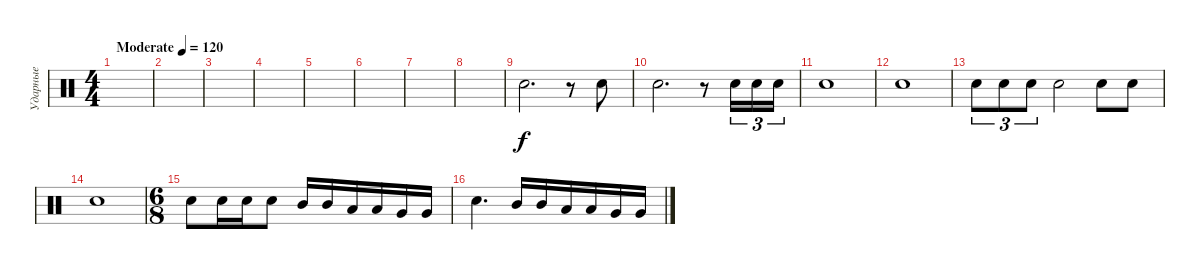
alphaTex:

\track ("Ударные" "Ударные") {instrument percussion}
\staff {score}
\articulation defaults
\ts (4 4)
\tempo (120 "Moderate")
\clef neutral
\ks c
|
|
|
|
|
|
|
|
"Electric Snare (hit)".2{d} r.8 "Electric Snare (hit)".8 |
"Electric Snare (hit)".2{d} r.8 "Electric Snare (hit)".16{tu (3 2)} "Electric Snare (hit)".16{tu (3 2)} "Electric Snare (hit)".16{tu (3 2)} |
"Electric Snare (hit)".1 |
"Electric Snare (hit)".1 |
"Electric Snare (hit)".8{tu (3 2)} "Electric Snare (hit)".8{tu (3 2)} "Electric Snare (hit)".8{tu (3 2)} "Electric Snare (hit)".2 "Electric Snare (hit)".8 "Electric Snare (hit)".8 |
"Electric Snare (hit)".1 |
\ts (6 8)
"Electric Snare (hit)".8 "Electric Snare (hit)".16 "Electric Snare (hit)".16 "Electric Snare (hit)".8 "Mid Tom (hit)".16 "Mid Tom (hit)".16 "Low Tom (hit)".16 "Low Tom (hit)".16 "Very Low Tom (hit)".16 "Very Low Tom (hit)".16 |
"Electric Snare (hit)".4{d} "Mid Tom (hit)".16 "Mid Tom (hit)".16 "Low Tom (hit)".16 "Low Tom (hit)".16 "Very Low Tom (hit)".16 "Very Low Tom (hit)".16
